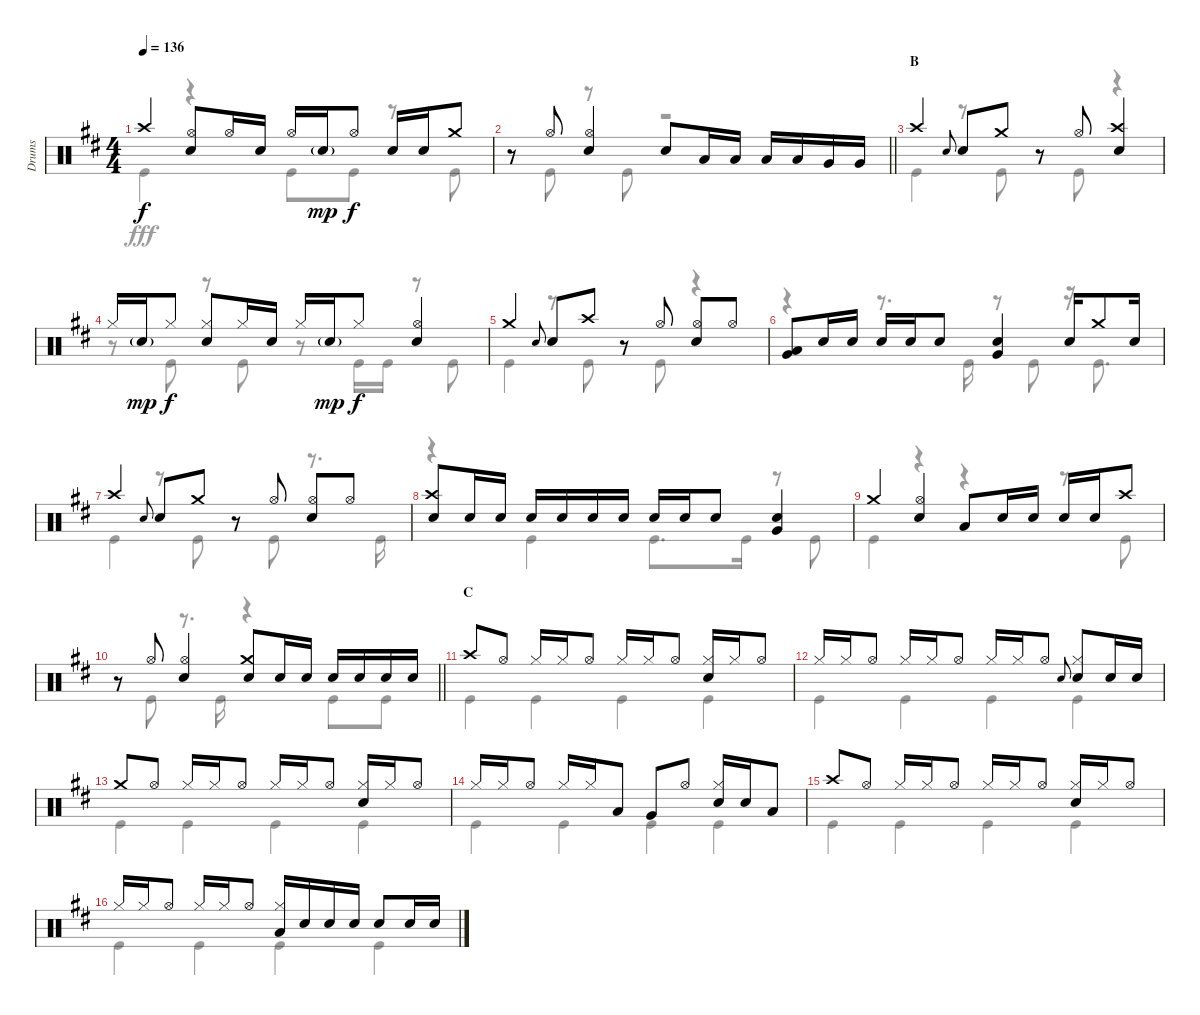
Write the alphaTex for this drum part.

\track ("Drums" "Drums") {instrument percussion}
\staff {score}
\articulation defaults
\voice
\ts (4 4)
\tempo 136
\clef neutral
\ks d "Crash high (hit)".4{dy f}
("Hi-Hat (open)" "Snare (hit) 2").8 "Hi-Hat (open)".16 "Snare (hit) 2".16 "Hi-Hat (open)".16 "Snare (hit) 2"{g}.16{dy mp} "Hi-Hat (open)".8{dy f} "Snare (hit) 2".16 "Snare (hit) 2".16 "Crash medium (hit)".8 |
\barLineRight lightlight
r.8 "Hi-Hat (open)".8 ("Hi-Hat (open)" "Snare (hit) 2").4 "Snare (hit) 2".8 "Low Tom (hit)".16 "Low Tom (hit)".16 "Low Tom (hit)".16 "Low Tom (hit)".16 "Very Low Tom (hit)".16 "Very Low Tom (hit)".16 |
\section ("" "B")
"Crash high (hit)".4 "Snare (hit) 2".8{gr onbeat} "Snare (hit) 2".8 "Crash medium (hit)".8 r.8 "Hi-Hat (open)".8 ("Crash high (hit)" "Snare (hit) 2").4 |
"Hi-Hat (closed)".16 "Snare (hit) 2"{g}.16{dy mp} "Hi-Hat (closed)".8{dy f} ("Hi-Hat (closed)" "Snare (hit) 2").8 "Hi-Hat (closed)".16 "Snare (hit) 2".16 "Hi-Hat (closed)".16 "Snare (hit) 2"{g}.16{dy mp} "Hi-Hat (closed)".8{dy f} ("Hi-Hat (open)" "Snare (hit) 2").4 |
"Crash medium (hit)".4 "Snare (hit) 2".8{gr onbeat} "Snare (hit) 2".8 "Crash high (hit)".8 r.8 "Hi-Hat (open)".8 ("Hi-Hat (open)" "Snare (hit) 2").8 "Hi-Hat (open)".8 |
("Low Tom (hit)" "Very Low Tom (hit)").8 "Snare (hit) 2".16 "Snare (hit) 2".16 "Snare (hit) 2".16 "Snare (hit) 2".16 "Snare (hit) 2".8 ("Snare (hit) 2" "Very Low Tom (hit)").4 "Snare (hit) 2".16 "Crash medium (hit)".8 "Snare (hit) 2".16 |
"Crash high (hit)".4 "Snare (hit) 2".8{gr onbeat} "Snare (hit) 2".8 "Crash medium (hit)".8 r.8 "Hi-Hat (open)".8 ("Hi-Hat (open)" "Snare (hit) 2").8 "Hi-Hat (open)".8 |
("Crash high (hit)" "Snare (hit) 2").8 "Snare (hit) 2".16 "Snare (hit) 2".16 "Snare (hit) 2".16 "Snare (hit) 2".16 "Snare (hit) 2".16 "Snare (hit) 2".16 "Snare (hit) 2".16 "Snare (hit) 2".16 "Snare (hit) 2".8 ("Snare (hit) 2" "Very Low Tom (hit)").4 |
"Crash medium (hit)".4 ("Hi-Hat (open)" "Snare (hit) 2").4 "Low Tom (hit)".8 "Snare (hit) 2".16 "Snare (hit) 2".16 "Snare (hit) 2".16 "Snare (hit) 2".16 "Crash high (hit)".8 |
\barLineRight lightlight
r.8 "Hi-Hat (open)".8 ("Hi-Hat (open)" "Snare (hit) 2").4 ("Crash medium (hit)" "Snare (hit) 2").8 "Snare (hit) 2".16 "Snare (hit) 2".16 "Snare (hit) 2".16 "Snare (hit) 2".16 "Snare (hit) 2".16 "Snare (hit) 2".16 |
\section ("" "C")
"Crash high (hit)".8 "Hi-Hat (open)".8 "Hi-Hat (closed)".16 "Hi-Hat (closed)".16 "Hi-Hat (open)".8 "Hi-Hat (closed)".16 "Hi-Hat (closed)".16 "Hi-Hat (open)".8 ("Hi-Hat (closed)" "Snare (hit) 2").16 "Hi-Hat (closed)".16 "Hi-Hat (open)".8 |
"Hi-Hat (closed)".16 "Hi-Hat (closed)".16 "Hi-Hat (open)".8 "Hi-Hat (closed)".16 "Hi-Hat (closed)".16 "Hi-Hat (open)".8 "Hi-Hat (closed)".16 "Hi-Hat (closed)".16 "Hi-Hat (open)".8 "Snare (hit) 2".8{gr onbeat} ("Hi-Hat (closed)" "Snare (hit) 2").8 "Snare (hit) 2".16 "Snare (hit) 2".16 |
"Crash medium (hit)".8 "Hi-Hat (open)".8 "Hi-Hat (closed)".16 "Hi-Hat (closed)".16 "Hi-Hat (open)".8 "Hi-Hat (closed)".16 "Hi-Hat (closed)".16 "Hi-Hat (open)".8 ("Hi-Hat (closed)" "Snare (hit) 2").16 "Hi-Hat (closed)".16 "Hi-Hat (open)".8 |
"Hi-Hat (closed)".16 "Hi-Hat (closed)".16 "Hi-Hat (open)".8 "Hi-Hat (closed)".16 "Hi-Hat (closed)".16 "Low Tom (hit)".8 "Very Low Tom (hit)".8 "Hi-Hat (open)".8 ("Hi-Hat (closed)" "Snare (hit) 2").16 "Snare (hit) 2".16 "Low Tom (hit)".8 |
"Crash high (hit)".8 "Hi-Hat (open)".8 "Hi-Hat (closed)".16 "Hi-Hat (closed)".16 "Hi-Hat (open)".8 "Hi-Hat (closed)".16 "Hi-Hat (closed)".16 "Hi-Hat (open)".8 ("Hi-Hat (closed)" "Snare (hit) 2").16 "Hi-Hat (closed)".16 "Hi-Hat (open)".8 |
"Hi-Hat (closed)".16 "Hi-Hat (closed)".16 "Hi-Hat (open)".8 "Hi-Hat (closed)".16 "Hi-Hat (closed)".16 "Hi-Hat (open)".8 ("Hi-Hat (closed)" "Low Tom (hit)").16 "Snare (hit) 2".16 "Snare (hit) 2".16 "Snare (hit) 2".16 "Snare (hit) 2".8 "Snare (hit) 2".16 "Snare (hit) 2".16
\voice
\clef neutral
\ottava regular
\simile none
\ks d "Kick (hit)".4{dy fff}
r.4 "Kick (hit)".8 "Kick (hit)".8 r.8 "Kick (hit)".8 |
\barLineRight lightlight
r.8 "Kick (hit)".8 r.8 "Kick (hit)".8 r.2 |
"Kick (hit)".4 r.8 "Kick (hit)".8 r.8 "Kick (hit)".8 r.4 |
r.8 "Kick (hit)".8 r.8 "Kick (hit)".8 r.8 "Kick (hit)".16 "Kick (hit)".16 r.8 "Kick (hit)".8 |
"Kick (hit)".4 r.8 "Kick (hit)".8 r.8 "Kick (hit)".8 r.4 |
r.4 r.8{d} "Kick (hit)".16 r.8 "Kick (hit)".8 r.16 "Kick (hit)".8{d} |
"Kick (hit)".4 r.8 "Kick (hit)".8 r.8 "Kick (hit)".8 r.8{d} "Kick (hit)".16 |
r.4 "Kick (hit)".4 "Kick (hit)".8{d} "Kick (hit)".16 r.8 "Kick (hit)".8 |
"Kick (hit)".4 r.4 r.4 r.8 "Kick (hit)".8 |
\barLineRight lightlight
r.8 "Kick (hit)".8 r.8{d} "Kick (hit)".16 r.4 "Kick (hit)".8 "Kick (hit)".8 |
"Kick (hit)".4 "Kick (hit)".4 "Kick (hit)".4 "Kick (hit)".4 |
"Kick (hit)".4 "Kick (hit)".4 "Kick (hit)".4 "Kick (hit)".4 |
"Kick (hit)".4 "Kick (hit)".4 "Kick (hit)".4 "Kick (hit)".4 |
"Kick (hit)".4 "Kick (hit)".4 "Kick (hit)".4 "Kick (hit)".4 |
"Kick (hit)".4 "Kick (hit)".4 "Kick (hit)".4 "Kick (hit)".4 |
"Kick (hit)".4 "Kick (hit)".4 "Kick (hit)".4 "Kick (hit)".4
